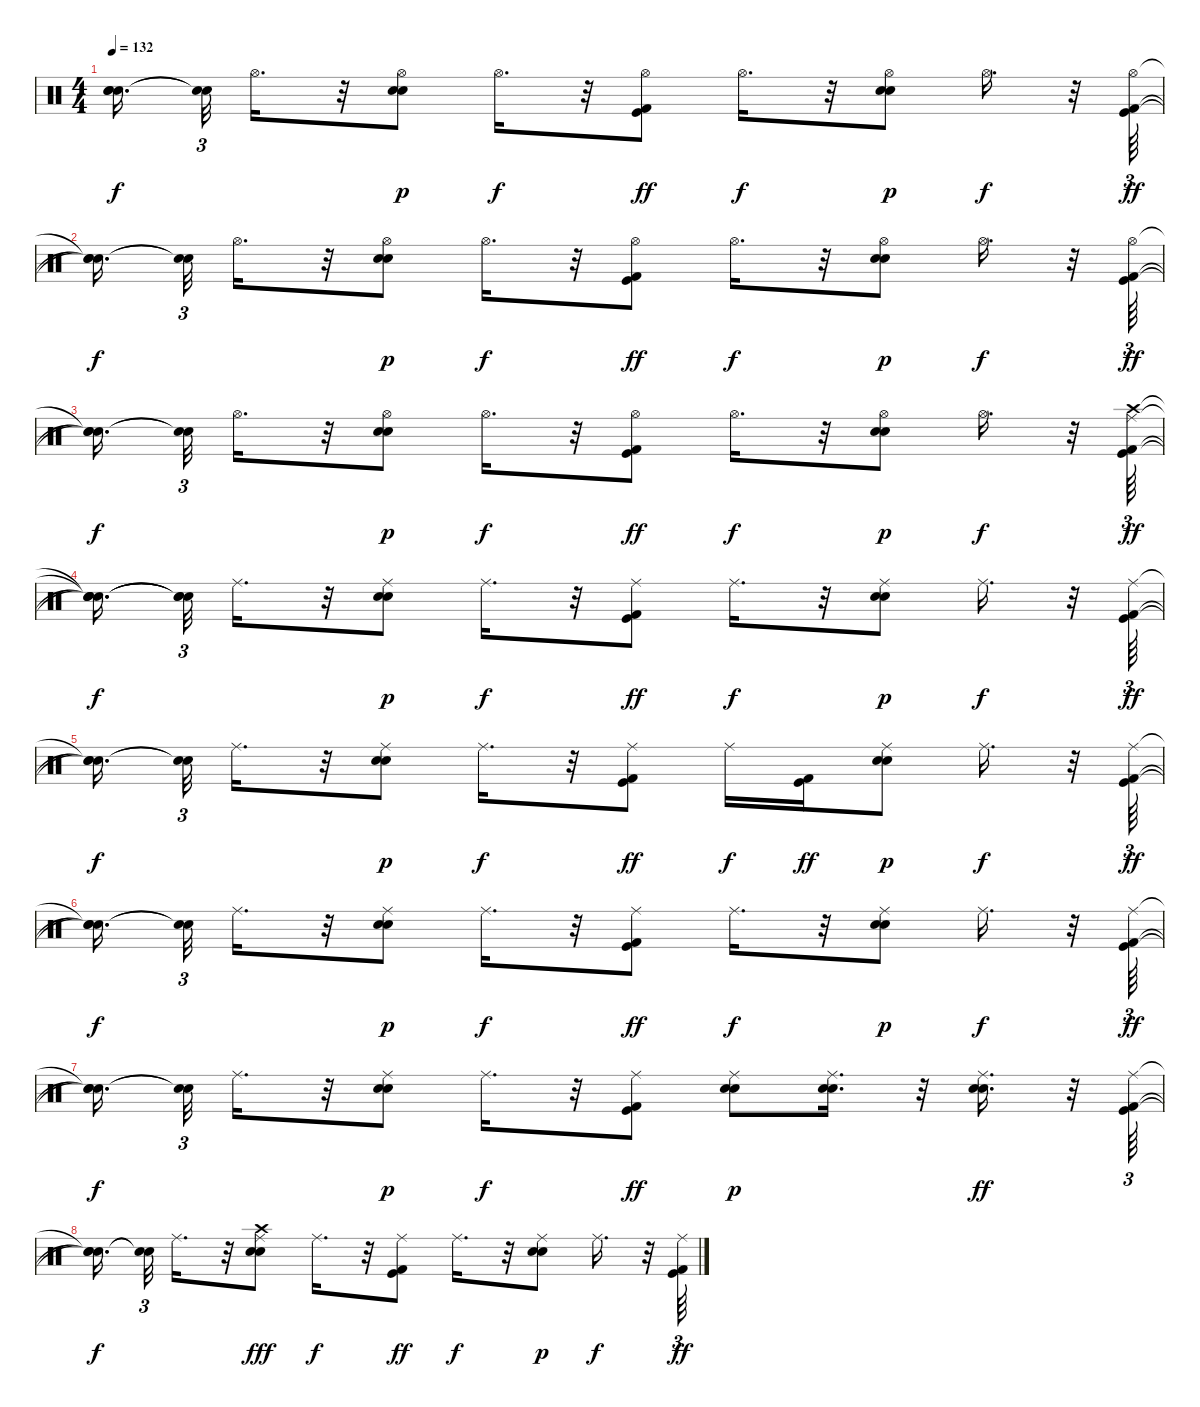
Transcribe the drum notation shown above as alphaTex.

\track "" {instrument percussion}
\staff {score}
\articulation defaults
\ts (4 4)
\tempo 132
\clef neutral
\ks c
("Snare (hit)"{t} "Snare (hit)"{t} "Snare (hit)"{t}).16{d dy f beam splitsecondary} ("Snare (hit)"{t} "Snare (hit)"{t}).32{tu (3 2)} "Hi-Hat (open)".16{d} r.32 ("Electric Snare (hit)" "Snare (hit) 2" "Hi-Hat (open)").8{dy p} "Hi-Hat (open)".16{d dy f} r.32 ("Kick (hit) 2" "Kick (hit)" "Hi-Hat (open)").8{dy ff} "Hi-Hat (open)".16{d dy f} r.32 ("Electric Snare (hit)" "Snare (hit) 2" "Hi-Hat (open)").8{dy p} "Hi-Hat (open)".16{d dy f} r.32 ("Kick (hit) 2" "Kick (hit)" "Hi-Hat (open)").64{tu (3 2) dy ff} |
("Snare (hit)"{t} "Snare (hit)"{t} "Snare (hit)"{t}).16{d dy f beam splitsecondary} ("Snare (hit)"{t} "Snare (hit)"{t}).32{tu (3 2)} "Hi-Hat (open)".16{d} r.32 ("Electric Snare (hit)" "Snare (hit) 2" "Hi-Hat (open)").8{dy p} "Hi-Hat (open)".16{d dy f} r.32 ("Kick (hit) 2" "Kick (hit)" "Hi-Hat (open)").8{dy ff} "Hi-Hat (open)".16{d dy f} r.32 ("Electric Snare (hit)" "Snare (hit) 2" "Hi-Hat (open)").8{dy p} "Hi-Hat (open)".16{d dy f} r.32 ("Kick (hit) 2" "Kick (hit)" "Hi-Hat (open)").64{tu (3 2) dy ff} |
("Snare (hit)"{t} "Snare (hit)"{t} "Snare (hit)"{t}).16{d dy f beam splitsecondary} ("Snare (hit)"{t} "Snare (hit)"{t}).32{tu (3 2)} "Hi-Hat (open)".16{d} r.32 ("Electric Snare (hit)" "Snare (hit) 2" "Hi-Hat (open)").8{dy p} "Hi-Hat (open)".16{d dy f} r.32 ("Kick (hit) 2" "Kick (hit)" "Hi-Hat (open)").8{dy ff} "Hi-Hat (open)".16{d dy f} r.32 ("Electric Snare (hit)" "Snare (hit) 2" "Hi-Hat (open)").8{dy p} "Hi-Hat (open)".16{d dy f} r.32 ("Kick (hit) 2" "Kick (hit)" "Crash high (hit)" "Ride (middle)").64{tu (3 2) dy ff} |
("Snare (hit)"{t} "Snare (hit)"{t} "Snare (hit)"{t} "Snare (hit)"{t}).16{d dy f beam splitsecondary} ("Snare (hit)"{t} "Snare (hit)"{t} "Snare (hit)"{t}).32{tu (3 2)} "Ride (middle)".16{d} r.32 ("Electric Snare (hit)" "Snare (hit) 2" "Ride (middle)").8{dy p} "Ride (middle)".16{d dy f} r.32 ("Kick (hit) 2" "Kick (hit)" "Ride (middle)").8{dy ff} "Ride (middle)".16{d dy f} r.32 ("Electric Snare (hit)" "Snare (hit) 2" "Ride (middle)").8{dy p} "Ride (middle)".16{d dy f} r.32 ("Kick (hit) 2" "Kick (hit)" "Ride (middle)").64{tu (3 2) dy ff} |
("Snare (hit)"{t} "Snare (hit)"{t} "Snare (hit)"{t}).16{d dy f beam splitsecondary} ("Snare (hit)"{t} "Snare (hit)"{t}).32{tu (3 2)} "Ride (middle)".16{d} r.32 ("Electric Snare (hit)" "Snare (hit) 2" "Ride (middle)").8{dy p} "Ride (middle)".16{d dy f} r.32 ("Kick (hit) 2" "Kick (hit)" "Ride (middle)").8{dy ff} "Ride (middle)".16{dy f} ("Kick (hit) 2" "Kick (hit)").16{dy ff} ("Electric Snare (hit)" "Snare (hit) 2" "Ride (middle)").8{dy p} "Ride (middle)".16{d dy f} r.32 ("Kick (hit) 2" "Kick (hit)" "Ride (middle)").64{tu (3 2) dy ff} |
("Snare (hit)"{t} "Snare (hit)"{t} "Snare (hit)"{t}).16{d dy f beam splitsecondary} ("Snare (hit)"{t} "Snare (hit)"{t}).32{tu (3 2)} "Ride (middle)".16{d} r.32 ("Electric Snare (hit)" "Snare (hit) 2" "Ride (middle)").8{dy p} "Ride (middle)".16{d dy f} r.32 ("Kick (hit) 2" "Kick (hit)" "Ride (middle)").8{dy ff} "Ride (middle)".16{d dy f} r.32 ("Electric Snare (hit)" "Snare (hit) 2" "Ride (middle)").8{dy p} "Ride (middle)".16{d dy f} r.32 ("Kick (hit) 2" "Kick (hit)" "Ride (middle)").64{tu (3 2) dy ff} |
("Snare (hit)"{t} "Snare (hit)"{t} "Snare (hit)"{t}).16{d dy f beam splitsecondary} ("Snare (hit)"{t} "Snare (hit)"{t}).32{tu (3 2)} "Ride (middle)".16{d} r.32 ("Electric Snare (hit)" "Snare (hit) 2" "Ride (middle)").8{dy p} "Ride (middle)".16{d dy f} r.32 ("Kick (hit) 2" "Kick (hit)" "Ride (middle)").8{dy ff} ("Electric Snare (hit)" "Snare (hit) 2" "Ride (middle)").8{dy p} ("Electric Snare (hit)" "Snare (hit) 2" "Ride (middle)").16{d} r.32 ("Snare (hit) 2" "Electric Snare (hit)" "Ride (middle)").16{d dy ff} r.32 ("Kick (hit) 2" "Kick (hit)" "Ride (middle)").64{tu (3 2)} |
("Snare (hit)"{t} "Snare (hit)"{t} "Snare (hit)"{t}).16{d dy f beam splitsecondary} ("Snare (hit)"{t} "Snare (hit)"{t}).32{tu (3 2)} "Ride (middle)".16{d} r.32 ("Electric Snare (hit)" "Snare (hit) 2" "Crash high (hit)" "Ride (middle)").8{dy fff} "Ride (middle)".16{d dy f} r.32 ("Kick (hit) 2" "Kick (hit)" "Ride (middle)").8{dy ff} "Ride (middle)".16{d dy f} r.32 ("Electric Snare (hit)" "Snare (hit) 2" "Ride (middle)").8{dy p} "Ride (middle)".16{d dy f} r.32 ("Kick (hit) 2" "Kick (hit)" "Ride (middle)").64{tu (3 2) dy ff}
